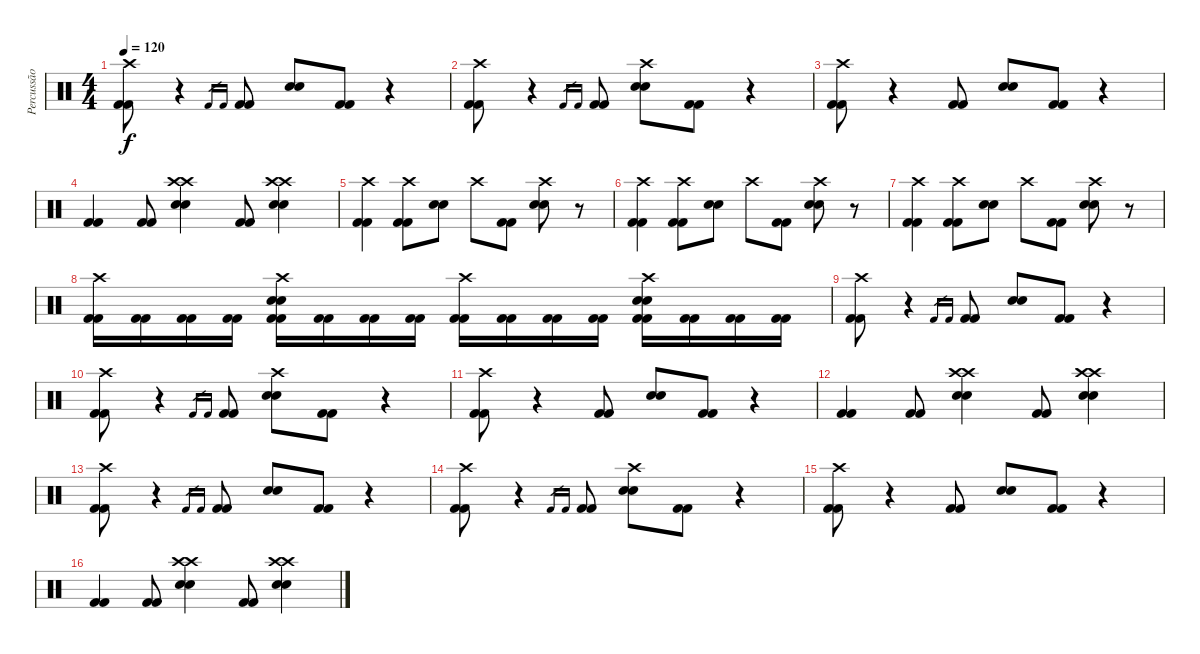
\track ("Percussão" "Percussão") {instrument percussion}
\staff {score}
\articulation defaults
\ts (4 4)
\tempo 120
\clef neutral
\ks c
("Crash high (hit)" "Kick (hit) 2" "Kick (hit) 2").8{dy f} r.4 "Kick (hit) 2".16{gr} "Kick (hit) 2".16{gr} ("Kick (hit) 2" "Kick (hit) 2").8 ("Snare (hit) 2" "Snare (hit) 2").8 ("Kick (hit) 2" "Kick (hit) 2").8 r.4 |
("Crash high (hit)" "Kick (hit) 2" "Kick (hit) 2").8 r.4 "Kick (hit) 2".16{gr} "Kick (hit) 2".16{gr} ("Kick (hit) 2" "Kick (hit) 2").8 ("Crash high (hit)" "Snare (hit) 2" "Snare (hit) 2").8 ("Kick (hit) 2" "Kick (hit) 2").8 r.4 |
("Crash high (hit)" "Kick (hit) 2" "Kick (hit) 2").8 r.4 ("Kick (hit) 2" "Kick (hit) 2").8 ("Snare (hit) 2" "Snare (hit) 2").8 ("Kick (hit) 2" "Kick (hit) 2").8 r.4 |
("Kick (hit) 2" "Kick (hit) 2").4 ("Kick (hit) 2" "Kick (hit) 2").8 ("Crash high (hit)" "Crash high (hit)" "Snare (hit) 2" "Snare (hit) 2").4 ("Kick (hit) 2" "Kick (hit) 2").8 ("Crash high (hit)" "Crash high (hit)" "Snare (hit) 2" "Snare (hit) 2").4 |
("Crash high (hit)" "Kick (hit) 2" "Kick (hit) 2").4 ("Crash high (hit)" "Kick (hit) 2" "Kick (hit) 2").8 ("Snare (hit) 2" "Snare (hit) 2").8 "Crash high (hit)".8 ("Kick (hit) 2" "Kick (hit) 2").8 ("Crash high (hit)" "Snare (hit) 2" "Snare (hit) 2").8 r.8 |
("Crash high (hit)" "Kick (hit) 2" "Kick (hit) 2").4 ("Crash high (hit)" "Kick (hit) 2" "Kick (hit) 2").8 ("Snare (hit) 2" "Snare (hit) 2").8 "Crash high (hit)".8 ("Kick (hit) 2" "Kick (hit) 2").8 ("Crash high (hit)" "Snare (hit) 2" "Snare (hit) 2").8 r.8 |
("Crash high (hit)" "Kick (hit) 2" "Kick (hit) 2").4 ("Crash high (hit)" "Kick (hit) 2" "Kick (hit) 2").8 ("Snare (hit) 2" "Snare (hit) 2").8 "Crash high (hit)".8 ("Kick (hit) 2" "Kick (hit) 2").8 ("Crash high (hit)" "Snare (hit) 2" "Snare (hit) 2").8 r.8 |
("Crash high (hit)" "Kick (hit) 2" "Kick (hit) 2").16 ("Kick (hit) 2" "Kick (hit) 2").16 ("Kick (hit) 2" "Kick (hit) 2").16 ("Kick (hit) 2" "Kick (hit) 2").16 ("Crash high (hit)" "Snare (hit) 2" "Snare (hit) 2" "Kick (hit) 2" "Kick (hit) 2").16 ("Kick (hit) 2" "Kick (hit) 2").16 ("Kick (hit) 2" "Kick (hit) 2").16 ("Kick (hit) 2" "Kick (hit) 2").16 ("Crash high (hit)" "Kick (hit) 2" "Kick (hit) 2").16 ("Kick (hit) 2" "Kick (hit) 2").16 ("Kick (hit) 2" "Kick (hit) 2").16 ("Kick (hit) 2" "Kick (hit) 2").16 ("Crash high (hit)" "Snare (hit) 2" "Snare (hit) 2" "Kick (hit) 2" "Kick (hit) 2").16 ("Kick (hit) 2" "Kick (hit) 2").16 ("Kick (hit) 2" "Kick (hit) 2").16 ("Kick (hit) 2" "Kick (hit) 2").16 |
("Crash high (hit)" "Kick (hit) 2" "Kick (hit) 2").8 r.4 "Kick (hit) 2".16{gr} "Kick (hit) 2".16{gr} ("Kick (hit) 2" "Kick (hit) 2").8 ("Snare (hit) 2" "Snare (hit) 2").8 ("Kick (hit) 2" "Kick (hit) 2").8 r.4 |
("Crash high (hit)" "Kick (hit) 2" "Kick (hit) 2").8 r.4 "Kick (hit) 2".16{gr} "Kick (hit) 2".16{gr} ("Kick (hit) 2" "Kick (hit) 2").8 ("Crash high (hit)" "Snare (hit) 2" "Snare (hit) 2").8 ("Kick (hit) 2" "Kick (hit) 2").8 r.4 |
("Crash high (hit)" "Kick (hit) 2" "Kick (hit) 2").8 r.4 ("Kick (hit) 2" "Kick (hit) 2").8 ("Snare (hit) 2" "Snare (hit) 2").8 ("Kick (hit) 2" "Kick (hit) 2").8 r.4 |
("Kick (hit) 2" "Kick (hit) 2").4 ("Kick (hit) 2" "Kick (hit) 2").8 ("Crash high (hit)" "Crash high (hit)" "Snare (hit) 2" "Snare (hit) 2").4 ("Kick (hit) 2" "Kick (hit) 2").8 ("Crash high (hit)" "Crash high (hit)" "Snare (hit) 2" "Snare (hit) 2").4 |
("Crash high (hit)" "Kick (hit) 2" "Kick (hit) 2").8 r.4 "Kick (hit) 2".16{gr} "Kick (hit) 2".16{gr} ("Kick (hit) 2" "Kick (hit) 2").8 ("Snare (hit) 2" "Snare (hit) 2").8 ("Kick (hit) 2" "Kick (hit) 2").8 r.4 |
("Crash high (hit)" "Kick (hit) 2" "Kick (hit) 2").8 r.4 "Kick (hit) 2".16{gr} "Kick (hit) 2".16{gr} ("Kick (hit) 2" "Kick (hit) 2").8 ("Crash high (hit)" "Snare (hit) 2" "Snare (hit) 2").8 ("Kick (hit) 2" "Kick (hit) 2").8 r.4 |
("Crash high (hit)" "Kick (hit) 2" "Kick (hit) 2").8 r.4 ("Kick (hit) 2" "Kick (hit) 2").8 ("Snare (hit) 2" "Snare (hit) 2").8 ("Kick (hit) 2" "Kick (hit) 2").8 r.4 |
("Kick (hit) 2" "Kick (hit) 2").4 ("Kick (hit) 2" "Kick (hit) 2").8 ("Crash high (hit)" "Crash high (hit)" "Snare (hit) 2" "Snare (hit) 2").4 ("Kick (hit) 2" "Kick (hit) 2").8 ("Crash high (hit)" "Crash high (hit)" "Snare (hit) 2" "Snare (hit) 2").4
